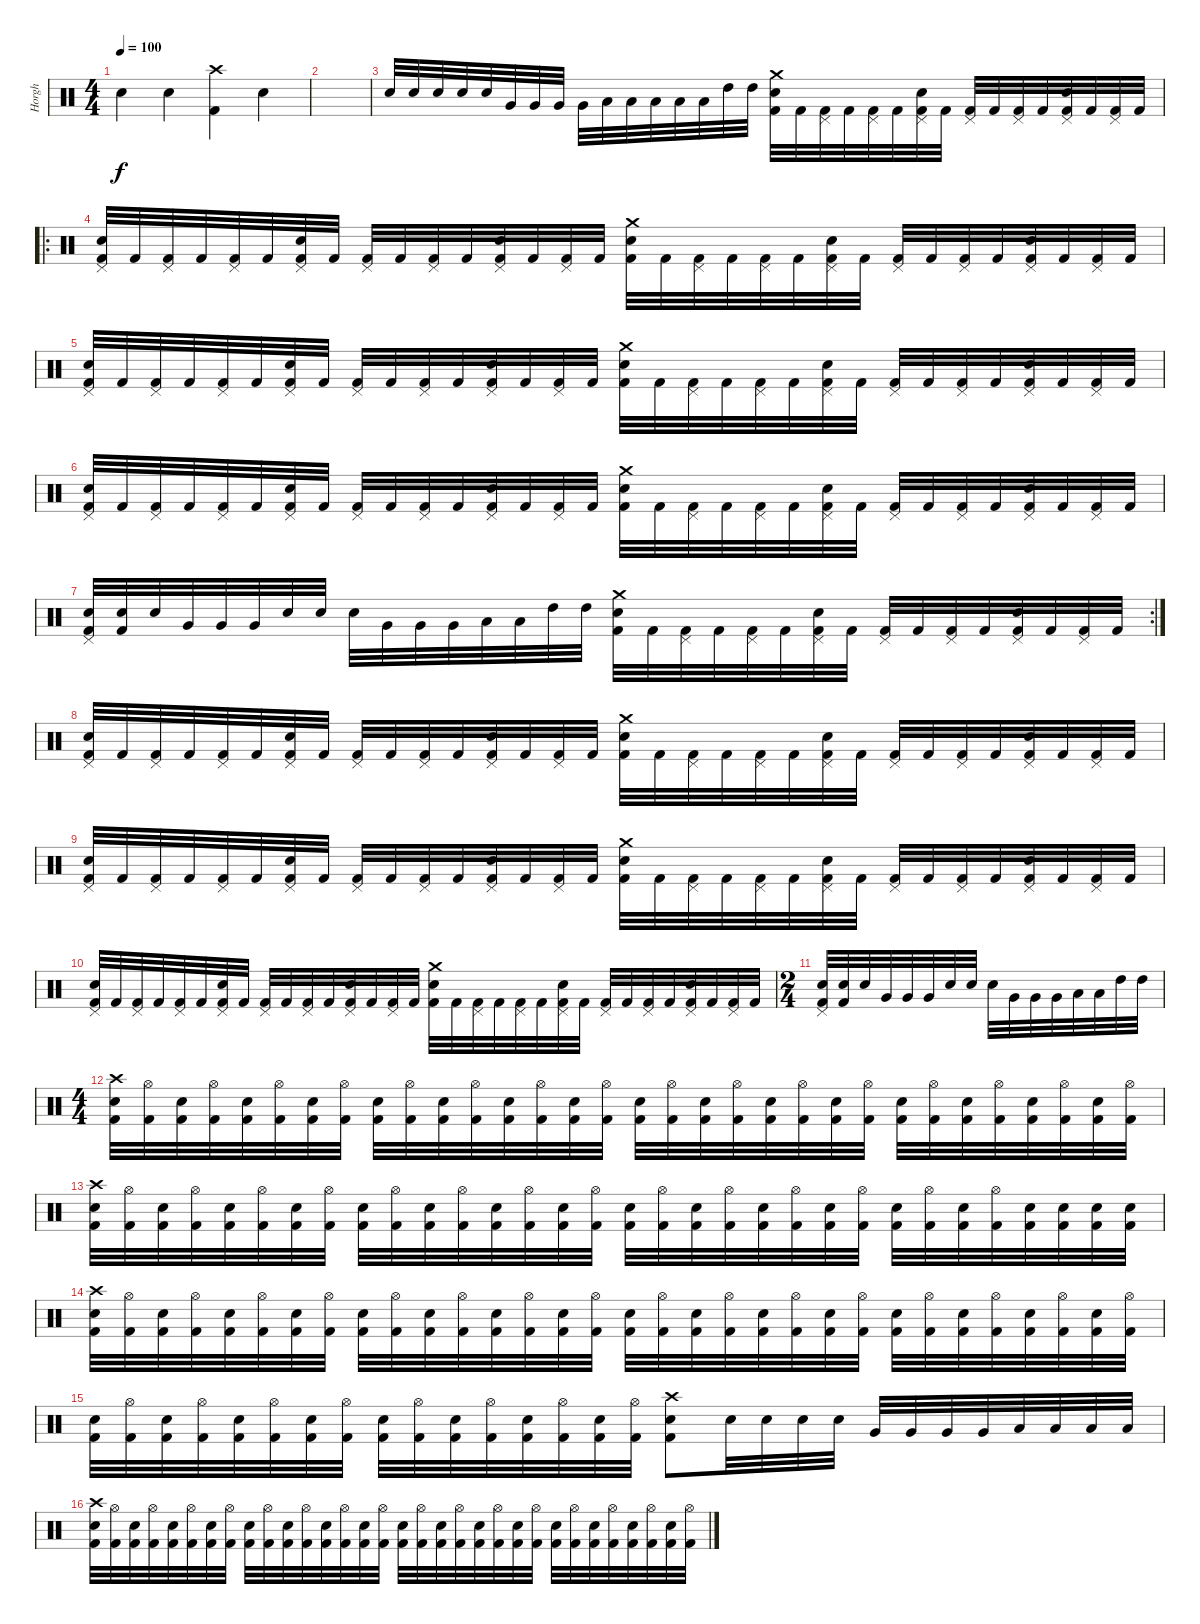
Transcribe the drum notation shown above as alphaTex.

\track ("Horgh" "Horgh") {instrument percussion}
\staff {score}
\articulation defaults
\ts (4 4)
\tempo 100
\clef neutral
\ks c "Snare (hit)".4{dy f} "Snare (hit)".4
("Crash high (hit)" "Kick (hit) 2").4 "Snare (hit)".4 |
|
"Electric Snare (hit)".32 "Electric Snare (hit)".32 "Electric Snare (hit)".32 "Electric Snare (hit)".32 "Electric Snare (hit)".32 "Very Low Tom (hit)".32 "Very Low Tom (hit)".32 "Very Low Tom (hit)".32 "Very Low Tom (hit)".32 "Low Tom (hit)".32 "Low Tom (hit)".32 "Low Tom (hit)".32 "Low Tom (hit)".32 "Low Tom (hit)".32 "High Tom (hit)".32 "High Tom (hit)".32 ("Crash medium (hit)" "Electric Snare (hit)" "Kick (hit) 2").32 "Kick (hit) 2".32 ("Pedal Hi-Hat (hit)" "Kick (hit) 2").32 "Kick (hit) 2".32 ("Pedal Hi-Hat (hit)" "Kick (hit) 2").32 "Kick (hit) 2".32 ("Pedal Hi-Hat (hit)" "Electric Snare (hit)" "Kick (hit) 2").32 "Kick (hit) 2".32 ("Pedal Hi-Hat (hit)" "Kick (hit) 2").32 "Kick (hit) 2".32 ("Pedal Hi-Hat (hit)" "Kick (hit) 2").32 "Kick (hit) 2".32 ("Pedal Hi-Hat (hit)" "Electric Snare (hit)" "Kick (hit) 2").32 "Kick (hit) 2".32 ("Pedal Hi-Hat (hit)" "Kick (hit) 2").32 "Kick (hit) 2".32 |
\ro
("Pedal Hi-Hat (hit)" "Electric Snare (hit)" "Kick (hit) 2").32 "Kick (hit) 2".32 ("Pedal Hi-Hat (hit)" "Kick (hit) 2").32 "Kick (hit) 2".32 ("Pedal Hi-Hat (hit)" "Kick (hit) 2").32 "Kick (hit) 2".32 ("Pedal Hi-Hat (hit)" "Electric Snare (hit)" "Kick (hit) 2").32 "Kick (hit) 2".32 ("Pedal Hi-Hat (hit)" "Kick (hit) 2").32 "Kick (hit) 2".32 ("Pedal Hi-Hat (hit)" "Kick (hit) 2").32 "Kick (hit) 2".32 ("Pedal Hi-Hat (hit)" "Electric Snare (hit)" "Kick (hit) 2").32 "Kick (hit) 2".32 ("Pedal Hi-Hat (hit)" "Kick (hit) 2").32 "Kick (hit) 2".32 ("Crash medium (hit)" "Electric Snare (hit)" "Kick (hit) 2").32 "Kick (hit) 2".32 ("Pedal Hi-Hat (hit)" "Kick (hit) 2").32 "Kick (hit) 2".32 ("Pedal Hi-Hat (hit)" "Kick (hit) 2").32 "Kick (hit) 2".32 ("Pedal Hi-Hat (hit)" "Electric Snare (hit)" "Kick (hit) 2").32 "Kick (hit) 2".32 ("Pedal Hi-Hat (hit)" "Kick (hit) 2").32 "Kick (hit) 2".32 ("Pedal Hi-Hat (hit)" "Kick (hit) 2").32 "Kick (hit) 2".32 ("Pedal Hi-Hat (hit)" "Electric Snare (hit)" "Kick (hit) 2").32 "Kick (hit) 2".32 ("Pedal Hi-Hat (hit)" "Kick (hit) 2").32 "Kick (hit) 2".32 |
("Pedal Hi-Hat (hit)" "Electric Snare (hit)" "Kick (hit) 2").32 "Kick (hit) 2".32 ("Pedal Hi-Hat (hit)" "Kick (hit) 2").32 "Kick (hit) 2".32 ("Pedal Hi-Hat (hit)" "Kick (hit) 2").32 "Kick (hit) 2".32 ("Pedal Hi-Hat (hit)" "Electric Snare (hit)" "Kick (hit) 2").32 "Kick (hit) 2".32 ("Pedal Hi-Hat (hit)" "Kick (hit) 2").32 "Kick (hit) 2".32 ("Pedal Hi-Hat (hit)" "Kick (hit) 2").32 "Kick (hit) 2".32 ("Pedal Hi-Hat (hit)" "Electric Snare (hit)" "Kick (hit) 2").32 "Kick (hit) 2".32 ("Pedal Hi-Hat (hit)" "Kick (hit) 2").32 "Kick (hit) 2".32 ("Crash medium (hit)" "Electric Snare (hit)" "Kick (hit) 2").32 "Kick (hit) 2".32 ("Pedal Hi-Hat (hit)" "Kick (hit) 2").32 "Kick (hit) 2".32 ("Pedal Hi-Hat (hit)" "Kick (hit) 2").32 "Kick (hit) 2".32 ("Pedal Hi-Hat (hit)" "Electric Snare (hit)" "Kick (hit) 2").32 "Kick (hit) 2".32 ("Pedal Hi-Hat (hit)" "Kick (hit) 2").32 "Kick (hit) 2".32 ("Pedal Hi-Hat (hit)" "Kick (hit) 2").32 "Kick (hit) 2".32 ("Pedal Hi-Hat (hit)" "Electric Snare (hit)" "Kick (hit) 2").32 "Kick (hit) 2".32 ("Pedal Hi-Hat (hit)" "Kick (hit) 2").32 "Kick (hit) 2".32 |
("Pedal Hi-Hat (hit)" "Electric Snare (hit)" "Kick (hit) 2").32 "Kick (hit) 2".32 ("Pedal Hi-Hat (hit)" "Kick (hit) 2").32 "Kick (hit) 2".32 ("Pedal Hi-Hat (hit)" "Kick (hit) 2").32 "Kick (hit) 2".32 ("Pedal Hi-Hat (hit)" "Electric Snare (hit)" "Kick (hit) 2").32 "Kick (hit) 2".32 ("Pedal Hi-Hat (hit)" "Kick (hit) 2").32 "Kick (hit) 2".32 ("Pedal Hi-Hat (hit)" "Kick (hit) 2").32 "Kick (hit) 2".32 ("Pedal Hi-Hat (hit)" "Electric Snare (hit)" "Kick (hit) 2").32 "Kick (hit) 2".32 ("Pedal Hi-Hat (hit)" "Kick (hit) 2").32 "Kick (hit) 2".32 ("Crash medium (hit)" "Electric Snare (hit)" "Kick (hit) 2").32 "Kick (hit) 2".32 ("Pedal Hi-Hat (hit)" "Kick (hit) 2").32 "Kick (hit) 2".32 ("Pedal Hi-Hat (hit)" "Kick (hit) 2").32 "Kick (hit) 2".32 ("Pedal Hi-Hat (hit)" "Electric Snare (hit)" "Kick (hit) 2").32 "Kick (hit) 2".32 ("Pedal Hi-Hat (hit)" "Kick (hit) 2").32 "Kick (hit) 2".32 ("Pedal Hi-Hat (hit)" "Kick (hit) 2").32 "Kick (hit) 2".32 ("Pedal Hi-Hat (hit)" "Electric Snare (hit)" "Kick (hit) 2").32 "Kick (hit) 2".32 ("Pedal Hi-Hat (hit)" "Kick (hit) 2").32 "Kick (hit) 2".32 |
\rc 2
("Pedal Hi-Hat (hit)" "Electric Snare (hit)" "Kick (hit) 2").32 ("Electric Snare (hit)" "Kick (hit) 2").32 "Electric Snare (hit)".32 "Very Low Tom (hit)".32 "Very Low Tom (hit)".32 "Very Low Tom (hit)".32 "Electric Snare (hit)".32 "Electric Snare (hit)".32 "Electric Snare (hit)".32 "Very Low Tom (hit)".32 "Very Low Tom (hit)".32 "Very Low Tom (hit)".32 "Low Tom (hit)".32 "Low Tom (hit)".32 "High Tom (hit)".32 "High Tom (hit)".32 ("Crash medium (hit)" "Electric Snare (hit)" "Kick (hit) 2").32 "Kick (hit) 2".32 ("Pedal Hi-Hat (hit)" "Kick (hit) 2").32 "Kick (hit) 2".32 ("Pedal Hi-Hat (hit)" "Kick (hit) 2").32 "Kick (hit) 2".32 ("Pedal Hi-Hat (hit)" "Electric Snare (hit)" "Kick (hit) 2").32 "Kick (hit) 2".32 ("Pedal Hi-Hat (hit)" "Kick (hit) 2").32 "Kick (hit) 2".32 ("Pedal Hi-Hat (hit)" "Kick (hit) 2").32 "Kick (hit) 2".32 ("Pedal Hi-Hat (hit)" "Electric Snare (hit)" "Kick (hit) 2").32 "Kick (hit) 2".32 ("Pedal Hi-Hat (hit)" "Kick (hit) 2").32 "Kick (hit) 2".32 |
("Pedal Hi-Hat (hit)" "Electric Snare (hit)" "Kick (hit) 2").32 "Kick (hit) 2".32 ("Pedal Hi-Hat (hit)" "Kick (hit) 2").32 "Kick (hit) 2".32 ("Pedal Hi-Hat (hit)" "Kick (hit) 2").32 "Kick (hit) 2".32 ("Pedal Hi-Hat (hit)" "Electric Snare (hit)" "Kick (hit) 2").32 "Kick (hit) 2".32 ("Pedal Hi-Hat (hit)" "Kick (hit) 2").32 "Kick (hit) 2".32 ("Pedal Hi-Hat (hit)" "Kick (hit) 2").32 "Kick (hit) 2".32 ("Pedal Hi-Hat (hit)" "Electric Snare (hit)" "Kick (hit) 2").32 "Kick (hit) 2".32 ("Pedal Hi-Hat (hit)" "Kick (hit) 2").32 "Kick (hit) 2".32 ("Crash medium (hit)" "Electric Snare (hit)" "Kick (hit) 2").32 "Kick (hit) 2".32 ("Pedal Hi-Hat (hit)" "Kick (hit) 2").32 "Kick (hit) 2".32 ("Pedal Hi-Hat (hit)" "Kick (hit) 2").32 "Kick (hit) 2".32 ("Pedal Hi-Hat (hit)" "Electric Snare (hit)" "Kick (hit) 2").32 "Kick (hit) 2".32 ("Pedal Hi-Hat (hit)" "Kick (hit) 2").32 "Kick (hit) 2".32 ("Pedal Hi-Hat (hit)" "Kick (hit) 2").32 "Kick (hit) 2".32 ("Pedal Hi-Hat (hit)" "Electric Snare (hit)" "Kick (hit) 2").32 "Kick (hit) 2".32 ("Pedal Hi-Hat (hit)" "Kick (hit) 2").32 "Kick (hit) 2".32 |
("Pedal Hi-Hat (hit)" "Electric Snare (hit)" "Kick (hit) 2").32 "Kick (hit) 2".32 ("Pedal Hi-Hat (hit)" "Kick (hit) 2").32 "Kick (hit) 2".32 ("Pedal Hi-Hat (hit)" "Kick (hit) 2").32 "Kick (hit) 2".32 ("Pedal Hi-Hat (hit)" "Electric Snare (hit)" "Kick (hit) 2").32 "Kick (hit) 2".32 ("Pedal Hi-Hat (hit)" "Kick (hit) 2").32 "Kick (hit) 2".32 ("Pedal Hi-Hat (hit)" "Kick (hit) 2").32 "Kick (hit) 2".32 ("Pedal Hi-Hat (hit)" "Electric Snare (hit)" "Kick (hit) 2").32 "Kick (hit) 2".32 ("Pedal Hi-Hat (hit)" "Kick (hit) 2").32 "Kick (hit) 2".32 ("Crash medium (hit)" "Electric Snare (hit)" "Kick (hit) 2").32 "Kick (hit) 2".32 ("Pedal Hi-Hat (hit)" "Kick (hit) 2").32 "Kick (hit) 2".32 ("Pedal Hi-Hat (hit)" "Kick (hit) 2").32 "Kick (hit) 2".32 ("Pedal Hi-Hat (hit)" "Electric Snare (hit)" "Kick (hit) 2").32 "Kick (hit) 2".32 ("Pedal Hi-Hat (hit)" "Kick (hit) 2").32 "Kick (hit) 2".32 ("Pedal Hi-Hat (hit)" "Kick (hit) 2").32 "Kick (hit) 2".32 ("Pedal Hi-Hat (hit)" "Electric Snare (hit)" "Kick (hit) 2").32 "Kick (hit) 2".32 ("Pedal Hi-Hat (hit)" "Kick (hit) 2").32 "Kick (hit) 2".32 |
("Pedal Hi-Hat (hit)" "Electric Snare (hit)" "Kick (hit) 2").32 "Kick (hit) 2".32 ("Pedal Hi-Hat (hit)" "Kick (hit) 2").32 "Kick (hit) 2".32 ("Pedal Hi-Hat (hit)" "Kick (hit) 2").32 "Kick (hit) 2".32 ("Pedal Hi-Hat (hit)" "Electric Snare (hit)" "Kick (hit) 2").32 "Kick (hit) 2".32 ("Pedal Hi-Hat (hit)" "Kick (hit) 2").32 "Kick (hit) 2".32 ("Pedal Hi-Hat (hit)" "Kick (hit) 2").32 "Kick (hit) 2".32 ("Pedal Hi-Hat (hit)" "Electric Snare (hit)" "Kick (hit) 2").32 "Kick (hit) 2".32 ("Pedal Hi-Hat (hit)" "Kick (hit) 2").32 "Kick (hit) 2".32 ("Crash medium (hit)" "Electric Snare (hit)" "Kick (hit) 2").32 "Kick (hit) 2".32 ("Pedal Hi-Hat (hit)" "Kick (hit) 2").32 "Kick (hit) 2".32 ("Pedal Hi-Hat (hit)" "Kick (hit) 2").32 "Kick (hit) 2".32 ("Pedal Hi-Hat (hit)" "Electric Snare (hit)" "Kick (hit) 2").32 "Kick (hit) 2".32 ("Pedal Hi-Hat (hit)" "Kick (hit) 2").32 "Kick (hit) 2".32 ("Pedal Hi-Hat (hit)" "Kick (hit) 2").32 "Kick (hit) 2".32 ("Pedal Hi-Hat (hit)" "Electric Snare (hit)" "Kick (hit) 2").32 "Kick (hit) 2".32 ("Pedal Hi-Hat (hit)" "Kick (hit) 2").32 "Kick (hit) 2".32 |
\ts (2 4)
("Pedal Hi-Hat (hit)" "Electric Snare (hit)" "Kick (hit) 2").32 ("Electric Snare (hit)" "Kick (hit) 2").32 "Electric Snare (hit)".32 "Very Low Tom (hit)".32 "Very Low Tom (hit)".32 "Very Low Tom (hit)".32 "Electric Snare (hit)".32 "Electric Snare (hit)".32 "Electric Snare (hit)".32 "Very Low Tom (hit)".32 "Very Low Tom (hit)".32 "Very Low Tom (hit)".32 "Low Tom (hit)".32 "Low Tom (hit)".32 "High Tom (hit)".32 "High Tom (hit)".32 |
\ts (4 4)
("Crash high (hit)" "Electric Snare (hit)" "Kick (hit) 2").32 ("Hi-Hat (open)" "Kick (hit) 2").32 ("Electric Snare (hit)" "Kick (hit) 2").32 ("Hi-Hat (open)" "Kick (hit) 2").32 ("Electric Snare (hit)" "Kick (hit) 2").32 ("Hi-Hat (open)" "Kick (hit) 2").32 ("Electric Snare (hit)" "Kick (hit) 2").32 ("Hi-Hat (open)" "Kick (hit) 2").32 ("Electric Snare (hit)" "Kick (hit) 2").32 ("Hi-Hat (open)" "Kick (hit) 2").32 ("Electric Snare (hit)" "Kick (hit) 2").32 ("Hi-Hat (open)" "Kick (hit) 2").32 ("Electric Snare (hit)" "Kick (hit) 2").32 ("Hi-Hat (open)" "Kick (hit) 2").32 ("Electric Snare (hit)" "Kick (hit) 2").32 ("Hi-Hat (open)" "Kick (hit) 2").32 ("Electric Snare (hit)" "Kick (hit) 2").32 ("Hi-Hat (open)" "Kick (hit) 2").32 ("Electric Snare (hit)" "Kick (hit) 2").32 ("Hi-Hat (open)" "Kick (hit) 2").32 ("Electric Snare (hit)" "Kick (hit) 2").32 ("Hi-Hat (open)" "Kick (hit) 2").32 ("Electric Snare (hit)" "Kick (hit) 2").32 ("Hi-Hat (open)" "Kick (hit) 2").32 ("Electric Snare (hit)" "Kick (hit) 2").32 ("Hi-Hat (open)" "Kick (hit) 2").32 ("Electric Snare (hit)" "Kick (hit) 2").32 ("Hi-Hat (open)" "Kick (hit) 2").32 ("Electric Snare (hit)" "Kick (hit) 2").32 ("Hi-Hat (open)" "Kick (hit) 2").32 ("Electric Snare (hit)" "Kick (hit) 2").32 ("Hi-Hat (open)" "Kick (hit) 2").32 |
("Crash high (hit)" "Electric Snare (hit)" "Kick (hit) 2").32 ("Hi-Hat (open)" "Kick (hit) 2").32 ("Electric Snare (hit)" "Kick (hit) 2").32 ("Hi-Hat (open)" "Kick (hit) 2").32 ("Electric Snare (hit)" "Kick (hit) 2").32 ("Hi-Hat (open)" "Kick (hit) 2").32 ("Electric Snare (hit)" "Kick (hit) 2").32 ("Hi-Hat (open)" "Kick (hit) 2").32 ("Electric Snare (hit)" "Kick (hit) 2").32 ("Hi-Hat (open)" "Kick (hit) 2").32 ("Electric Snare (hit)" "Kick (hit) 2").32 ("Hi-Hat (open)" "Kick (hit) 2").32 ("Electric Snare (hit)" "Kick (hit) 2").32 ("Hi-Hat (open)" "Kick (hit) 2").32 ("Electric Snare (hit)" "Kick (hit) 2").32 ("Hi-Hat (open)" "Kick (hit) 2").32 ("Electric Snare (hit)" "Kick (hit) 2").32 ("Hi-Hat (open)" "Kick (hit) 2").32 ("Electric Snare (hit)" "Kick (hit) 2").32 ("Hi-Hat (open)" "Kick (hit) 2").32 ("Electric Snare (hit)" "Kick (hit) 2").32 ("Hi-Hat (open)" "Kick (hit) 2").32 ("Electric Snare (hit)" "Kick (hit) 2").32 ("Hi-Hat (open)" "Kick (hit) 2").32 ("Electric Snare (hit)" "Kick (hit) 2").32 ("Hi-Hat (open)" "Kick (hit) 2").32 ("Electric Snare (hit)" "Kick (hit) 2").32 ("Hi-Hat (open)" "Kick (hit) 2").32 ("Electric Snare (hit)" "Kick (hit) 2").32 ("Electric Snare (hit)" "Kick (hit) 2").32 ("Electric Snare (hit)" "Kick (hit) 2").32 ("Electric Snare (hit)" "Kick (hit) 2").32 |
("Crash high (hit)" "Electric Snare (hit)" "Kick (hit) 2").32 ("Hi-Hat (open)" "Kick (hit) 2").32 ("Electric Snare (hit)" "Kick (hit) 2").32 ("Hi-Hat (open)" "Kick (hit) 2").32 ("Electric Snare (hit)" "Kick (hit) 2").32 ("Hi-Hat (open)" "Kick (hit) 2").32 ("Electric Snare (hit)" "Kick (hit) 2").32 ("Hi-Hat (open)" "Kick (hit) 2").32 ("Electric Snare (hit)" "Kick (hit) 2").32 ("Hi-Hat (open)" "Kick (hit) 2").32 ("Electric Snare (hit)" "Kick (hit) 2").32 ("Hi-Hat (open)" "Kick (hit) 2").32 ("Electric Snare (hit)" "Kick (hit) 2").32 ("Hi-Hat (open)" "Kick (hit) 2").32 ("Electric Snare (hit)" "Kick (hit) 2").32 ("Hi-Hat (open)" "Kick (hit) 2").32 ("Electric Snare (hit)" "Kick (hit) 2").32 ("Hi-Hat (open)" "Kick (hit) 2").32 ("Electric Snare (hit)" "Kick (hit) 2").32 ("Hi-Hat (open)" "Kick (hit) 2").32 ("Electric Snare (hit)" "Kick (hit) 2").32 ("Hi-Hat (open)" "Kick (hit) 2").32 ("Electric Snare (hit)" "Kick (hit) 2").32 ("Hi-Hat (open)" "Kick (hit) 2").32 ("Electric Snare (hit)" "Kick (hit) 2").32 ("Hi-Hat (open)" "Kick (hit) 2").32 ("Electric Snare (hit)" "Kick (hit) 2").32 ("Hi-Hat (open)" "Kick (hit) 2").32 ("Electric Snare (hit)" "Kick (hit) 2").32 ("Hi-Hat (open)" "Kick (hit) 2").32 ("Electric Snare (hit)" "Kick (hit) 2").32 ("Hi-Hat (open)" "Kick (hit) 2").32 |
("Electric Snare (hit)" "Kick (hit) 2").32 ("Hi-Hat (open)" "Kick (hit) 2").32 ("Electric Snare (hit)" "Kick (hit) 2").32 ("Hi-Hat (open)" "Kick (hit) 2").32 ("Electric Snare (hit)" "Kick (hit) 2").32 ("Hi-Hat (open)" "Kick (hit) 2").32 ("Electric Snare (hit)" "Kick (hit) 2").32 ("Hi-Hat (open)" "Kick (hit) 2").32 ("Electric Snare (hit)" "Kick (hit) 2").32 ("Hi-Hat (open)" "Kick (hit) 2").32 ("Electric Snare (hit)" "Kick (hit) 2").32 ("Hi-Hat (open)" "Kick (hit) 2").32 ("Electric Snare (hit)" "Kick (hit) 2").32 ("Hi-Hat (open)" "Kick (hit) 2").32 ("Electric Snare (hit)" "Kick (hit) 2").32 ("Hi-Hat (open)" "Kick (hit) 2").32 ("Crash high (hit)" "Electric Snare (hit)" "Kick (hit) 2").8 "Electric Snare (hit)".32 "Electric Snare (hit)".32 "Electric Snare (hit)".32 "Electric Snare (hit)".32 "Very Low Tom (hit)".32 "Very Low Tom (hit)".32 "Very Low Tom (hit)".32 "Very Low Tom (hit)".32 "Low Tom (hit)".32 "Low Tom (hit)".32 "Low Tom (hit)".32 "Low Tom (hit)".32 |
("Crash high (hit)" "Electric Snare (hit)" "Kick (hit) 2").32 ("Hi-Hat (open)" "Kick (hit) 2").32 ("Electric Snare (hit)" "Kick (hit) 2").32 ("Hi-Hat (open)" "Kick (hit) 2").32 ("Electric Snare (hit)" "Kick (hit) 2").32 ("Hi-Hat (open)" "Kick (hit) 2").32 ("Electric Snare (hit)" "Kick (hit) 2").32 ("Hi-Hat (open)" "Kick (hit) 2").32 ("Electric Snare (hit)" "Kick (hit) 2").32 ("Hi-Hat (open)" "Kick (hit) 2").32 ("Electric Snare (hit)" "Kick (hit) 2").32 ("Hi-Hat (open)" "Kick (hit) 2").32 ("Electric Snare (hit)" "Kick (hit) 2").32 ("Hi-Hat (open)" "Kick (hit) 2").32 ("Electric Snare (hit)" "Kick (hit) 2").32 ("Hi-Hat (open)" "Kick (hit) 2").32 ("Electric Snare (hit)" "Kick (hit) 2").32 ("Hi-Hat (open)" "Kick (hit) 2").32 ("Electric Snare (hit)" "Kick (hit) 2").32 ("Hi-Hat (open)" "Kick (hit) 2").32 ("Electric Snare (hit)" "Kick (hit) 2").32 ("Hi-Hat (open)" "Kick (hit) 2").32 ("Electric Snare (hit)" "Kick (hit) 2").32 ("Hi-Hat (open)" "Kick (hit) 2").32 ("Electric Snare (hit)" "Kick (hit) 2").32 ("Hi-Hat (open)" "Kick (hit) 2").32 ("Electric Snare (hit)" "Kick (hit) 2").32 ("Hi-Hat (open)" "Kick (hit) 2").32 ("Electric Snare (hit)" "Kick (hit) 2").32 ("Hi-Hat (open)" "Kick (hit) 2").32 ("Electric Snare (hit)" "Kick (hit) 2").32 ("Hi-Hat (open)" "Kick (hit) 2").32
